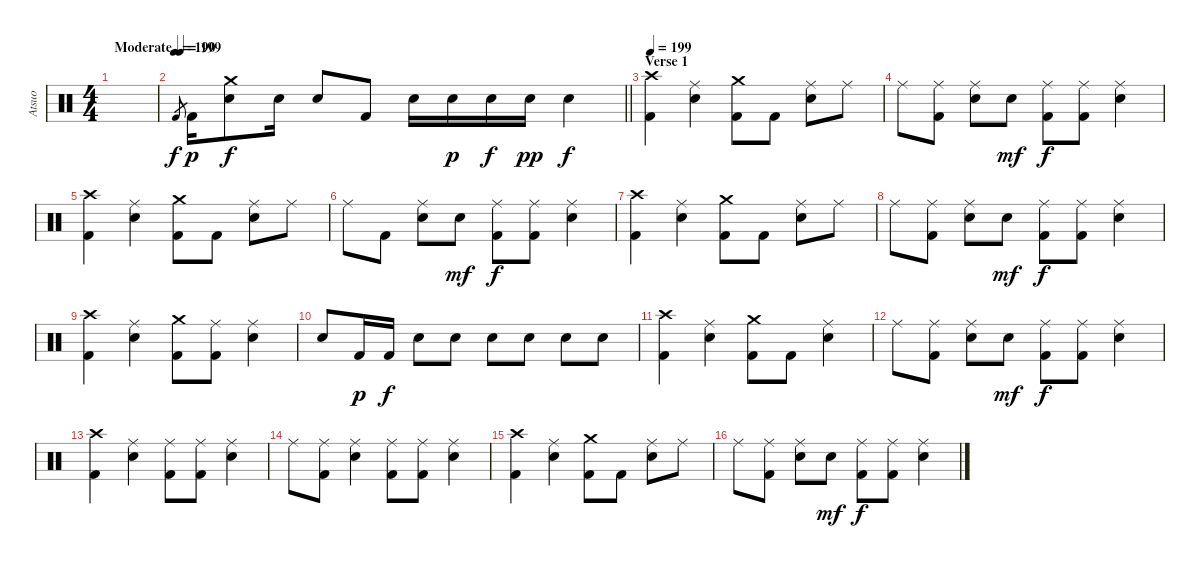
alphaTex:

\track ("Atsuo" "Atsuo") {instrument percussion}
\staff {score}
\articulation defaults
\ts (4 4)
\tempo (199 "Moderate")
\clef neutral
\ks c
|
\tempo 190
\barLineRight lightlight "Kick (hit) 2".8{gr} "Kick (hit) 2".16{dy p}
("Crash medium (hit)" "Electric Snare (hit)").8{dy f} "Electric Snare (hit)".16 "Electric Snare (hit)".8 "Kick (hit) 2".8 "Electric Snare (hit)".16 "Electric Snare (hit)".16{dy p} "Electric Snare (hit)".16{dy f} "Electric Snare (hit)".16{dy pp} "Electric Snare (hit)".4{dy f} |
\section ("" "Verse 1")
\tempo 199
("Crash high (hit)" "Kick (hit) 2").4 ("Ride (middle)" "Electric Snare (hit)").4 ("Crash medium (hit)" "Kick (hit) 2").8 "Kick (hit) 2".8 ("Ride (middle)" "Electric Snare (hit)").8 "Ride (middle)".8 |
"Ride (middle)".8 ("Ride (middle)" "Kick (hit) 2").8 ("Ride (middle)" "Electric Snare (hit)").8 "Electric Snare (hit)".8{dy mf} ("Ride (middle)" "Kick (hit) 2").8{dy f} ("Ride (middle)" "Kick (hit) 2").8 ("Ride (middle)" "Electric Snare (hit)").4 |
("Crash high (hit)" "Kick (hit) 2").4 ("Ride (middle)" "Electric Snare (hit)").4 ("Crash medium (hit)" "Kick (hit) 2").8 "Kick (hit) 2".8 ("Ride (middle)" "Electric Snare (hit)").8 "Ride (middle)".8 |
"Ride (middle)".8 "Kick (hit) 2".8 ("Ride (middle)" "Electric Snare (hit)").8 "Electric Snare (hit)".8{dy mf} ("Ride (middle)" "Kick (hit) 2").8{dy f} ("Ride (middle)" "Kick (hit) 2").8 ("Ride (middle)" "Electric Snare (hit)").4 |
("Crash high (hit)" "Kick (hit) 2").4 ("Ride (middle)" "Electric Snare (hit)").4 ("Crash medium (hit)" "Kick (hit) 2").8 "Kick (hit) 2".8 ("Ride (middle)" "Electric Snare (hit)").8 "Ride (middle)".8 |
"Ride (middle)".8 ("Ride (middle)" "Kick (hit) 2").8 ("Ride (middle)" "Electric Snare (hit)").8 "Electric Snare (hit)".8{dy mf} ("Ride (middle)" "Kick (hit) 2").8{dy f} ("Ride (middle)" "Kick (hit) 2").8 ("Ride (middle)" "Electric Snare (hit)").4 |
("Crash high (hit)" "Kick (hit) 2").4 ("Ride (middle)" "Electric Snare (hit)").4 ("Crash medium (hit)" "Kick (hit) 2").8 ("Ride (middle)" "Kick (hit) 2").8 ("Ride (middle)" "Electric Snare (hit)").4 |
"Electric Snare (hit)".8 "Kick (hit) 2".16{dy p} "Kick (hit) 2".16{dy f} "Electric Snare (hit)".8 "Electric Snare (hit)".8 "Electric Snare (hit)".8 "Electric Snare (hit)".8 "Electric Snare (hit)".8 "Electric Snare (hit)".8 |
("Crash high (hit)" "Kick (hit) 2").4 ("Ride (middle)" "Electric Snare (hit)").4 ("Crash medium (hit)" "Kick (hit) 2").8 "Kick (hit) 2".8 ("Ride (middle)" "Electric Snare (hit)").4 |
"Ride (middle)".8 ("Ride (middle)" "Kick (hit) 2").8 ("Ride (middle)" "Electric Snare (hit)").8 "Electric Snare (hit)".8{dy mf} ("Ride (middle)" "Kick (hit) 2").8{dy f} ("Ride (middle)" "Kick (hit) 2").8 ("Ride (middle)" "Electric Snare (hit)").4 |
("Crash high (hit)" "Kick (hit) 2").4 ("Ride (middle)" "Electric Snare (hit)").4 ("Ride (middle)" "Kick (hit) 2").8 ("Ride (middle)" "Kick (hit) 2").8 ("Ride (middle)" "Electric Snare (hit)").4 |
"Ride (middle)".8 ("Ride (middle)" "Kick (hit) 2").8 ("Ride (middle)" "Electric Snare (hit)").4 ("Ride (middle)" "Kick (hit) 2").8 ("Ride (middle)" "Kick (hit) 2").8 ("Ride (middle)" "Electric Snare (hit)").4 |
("Crash high (hit)" "Kick (hit) 2").4 ("Ride (middle)" "Electric Snare (hit)").4 ("Crash medium (hit)" "Kick (hit) 2").8 "Kick (hit) 2".8 ("Ride (middle)" "Electric Snare (hit)").8 "Ride (middle)".8 |
"Ride (middle)".8 ("Ride (middle)" "Kick (hit) 2").8 ("Ride (middle)" "Electric Snare (hit)").8 "Electric Snare (hit)".8{dy mf} ("Ride (middle)" "Kick (hit) 2").8{dy f} ("Ride (middle)" "Kick (hit) 2").8 ("Ride (middle)" "Electric Snare (hit)").4
